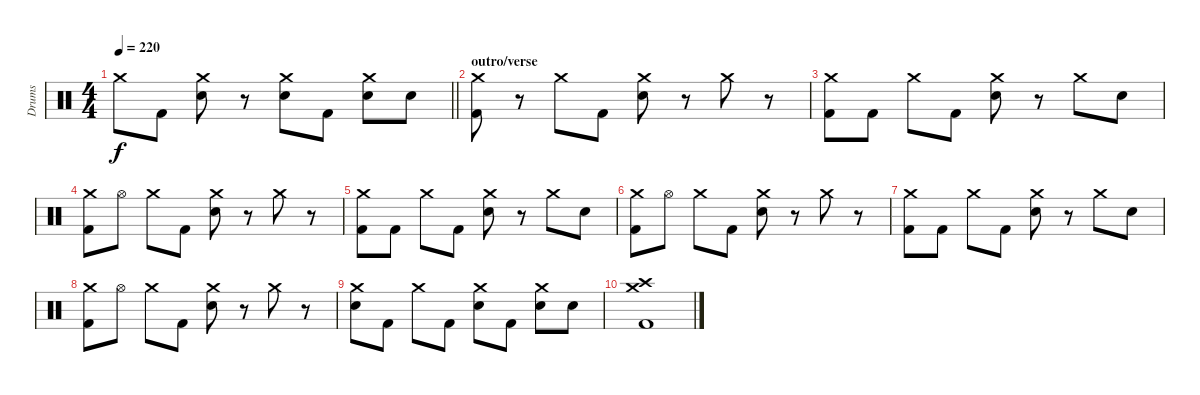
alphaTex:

\track ("Drums" "Drums") {instrument percussion}
\staff {score}
\articulation defaults
\ts (4 4)
\tempo 220
\clef neutral
\barLineRight lightlight
\ks c "Crash medium (hit)".8{dy f} "Kick (hit) 2".8
("Crash medium (hit)" "Electric Snare (hit)").8 r.8 ("Crash medium (hit)" "Electric Snare (hit)").8 "Kick (hit) 2".8 ("Crash medium (hit)" "Electric Snare (hit)").8 "Electric Snare (hit)".8 |
\section ("" "outro/verse")
("Crash medium (hit)" "Kick (hit) 2").8 r.8 "Crash medium (hit)".8 "Kick (hit) 2".8 ("Crash medium (hit)" "Electric Snare (hit)").8 r.8 "Crash medium (hit)".8 r.8 |
("Crash medium (hit)" "Kick (hit) 2").8 "Kick (hit) 2".8 "Crash medium (hit)".8 "Kick (hit) 2".8 ("Crash medium (hit)" "Electric Snare (hit)").8 r.8 "Crash medium (hit)".8 "Electric Snare (hit)".8 |
("Crash medium (hit)" "Kick (hit) 2").8 "Hi-Hat (open)".8 "Crash medium (hit)".8 "Kick (hit) 2".8 ("Crash medium (hit)" "Electric Snare (hit)").8 r.8 "Crash medium (hit)".8 r.8 |
("Crash medium (hit)" "Kick (hit) 2").8 "Kick (hit) 2".8 "Crash medium (hit)".8 "Kick (hit) 2".8 ("Crash medium (hit)" "Electric Snare (hit)").8 r.8 "Crash medium (hit)".8 "Electric Snare (hit)".8 |
("Crash medium (hit)" "Kick (hit) 2").8 "Hi-Hat (open)".8 "Crash medium (hit)".8 "Kick (hit) 2".8 ("Crash medium (hit)" "Electric Snare (hit)").8 r.8 "Crash medium (hit)".8 r.8 |
("Crash medium (hit)" "Kick (hit) 2").8 "Kick (hit) 2".8 "Crash medium (hit)".8 "Kick (hit) 2".8 ("Crash medium (hit)" "Electric Snare (hit)").8 r.8 "Crash medium (hit)".8 "Electric Snare (hit)".8 |
("Crash medium (hit)" "Kick (hit) 2").8 "Hi-Hat (open)".8 "Crash medium (hit)".8 "Kick (hit) 2".8 ("Crash medium (hit)" "Electric Snare (hit)").8 r.8 "Crash medium (hit)".8 r.8 |
("Crash medium (hit)" "Electric Snare (hit)").8 "Kick (hit) 2".8 "Crash medium (hit)".8 "Kick (hit) 2".8 ("Crash medium (hit)" "Electric Snare (hit)").8 "Kick (hit) 2".8 ("Crash medium (hit)" "Electric Snare (hit)").8 "Electric Snare (hit)".8 |
("Crash high (hit)" "Crash medium (hit)" "Kick (hit) 2").1
